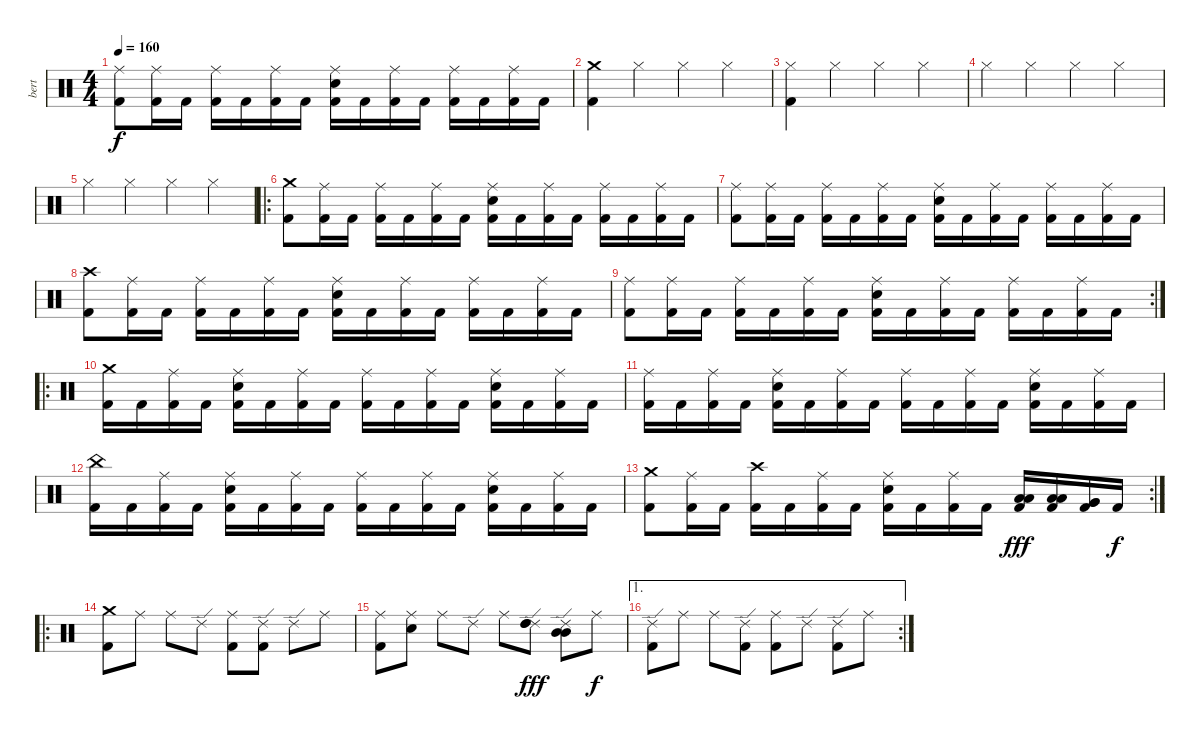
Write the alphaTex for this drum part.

\track ("bert" "bert") {instrument percussion}
\staff {score}
\articulation defaults
\ts (4 4)
\tempo 160
\clef neutral
\ks c
("Ride (middle)" "Kick (hit) 2").8{dy f} ("Ride (middle)" "Kick (hit) 2").16 "Kick (hit) 2".16 ("Ride (middle)" "Kick (hit) 2").16 "Kick (hit) 2".16 ("Ride (middle)" "Kick (hit) 2").16 "Kick (hit) 2".16 ("Ride (middle)" "Snare (hit) 2" "Kick (hit) 2").16 "Kick (hit) 2".16 ("Ride (middle)" "Kick (hit) 2").16 "Kick (hit) 2".16 ("Ride (middle)" "Kick (hit) 2").16 "Kick (hit) 2".16 ("Ride (middle)" "Kick (hit) 2").16 "Kick (hit) 2".16 |
("Crash medium (hit)" "Kick (hit) 2").4 "Hi-Hat (closed)".4 "Hi-Hat (closed)".4 "Hi-Hat (closed)".4 |
("Hi-Hat (closed)" "Kick (hit) 2").4 "Hi-Hat (closed)".4 "Hi-Hat (closed)".4 "Hi-Hat (closed)".4 |
"Hi-Hat (closed)".4 "Hi-Hat (closed)".4 "Hi-Hat (closed)".4 "Hi-Hat (closed)".4 |
"Hi-Hat (closed)".4 "Hi-Hat (closed)".4 "Hi-Hat (closed)".4 "Hi-Hat (closed)".4 |
\ro
("Crash medium (hit)" "Kick (hit) 2").8 ("Ride (middle)" "Kick (hit) 2").16 "Kick (hit) 2".16 ("Ride (middle)" "Kick (hit) 2").16 "Kick (hit) 2".16 ("Ride (middle)" "Kick (hit) 2").16 "Kick (hit) 2".16 ("Ride (middle)" "Snare (hit) 2" "Kick (hit) 2").16 "Kick (hit) 2".16 ("Ride (middle)" "Kick (hit) 2").16 "Kick (hit) 2".16 ("Ride (middle)" "Kick (hit) 2").16 "Kick (hit) 2".16 ("Ride (middle)" "Kick (hit) 2").16 "Kick (hit) 2".16 |
("Ride (middle)" "Kick (hit) 2").8 ("Ride (middle)" "Kick (hit) 2").16 "Kick (hit) 2".16 ("Ride (middle)" "Kick (hit) 2").16 "Kick (hit) 2".16 ("Ride (middle)" "Kick (hit) 2").16 "Kick (hit) 2".16 ("Ride (middle)" "Snare (hit) 2" "Kick (hit) 2").16 "Kick (hit) 2".16 ("Ride (middle)" "Kick (hit) 2").16 "Kick (hit) 2".16 ("Ride (middle)" "Kick (hit) 2").16 "Kick (hit) 2".16 ("Ride (middle)" "Kick (hit) 2").16 "Kick (hit) 2".16 |
("Crash high (hit)" "Kick (hit) 2").8 ("Ride (middle)" "Kick (hit) 2").16 "Kick (hit) 2".16 ("Ride (middle)" "Kick (hit) 2").16 "Kick (hit) 2".16 ("Ride (middle)" "Kick (hit) 2").16 "Kick (hit) 2".16 ("Ride (middle)" "Snare (hit) 2" "Kick (hit) 2").16 "Kick (hit) 2".16 ("Ride (middle)" "Kick (hit) 2").16 "Kick (hit) 2".16 ("Ride (middle)" "Kick (hit) 2").16 "Kick (hit) 2".16 ("Ride (middle)" "Kick (hit) 2").16 "Kick (hit) 2".16 |
\rc 2
("Ride (middle)" "Kick (hit) 2").8 ("Ride (middle)" "Kick (hit) 2").16 "Kick (hit) 2".16 ("Ride (middle)" "Kick (hit) 2").16 "Kick (hit) 2".16 ("Ride (middle)" "Kick (hit) 2").16 "Kick (hit) 2".16 ("Ride (middle)" "Snare (hit) 2" "Kick (hit) 2").16 "Kick (hit) 2".16 ("Ride (middle)" "Kick (hit) 2").16 "Kick (hit) 2".16 ("Ride (middle)" "Kick (hit) 2").16 "Kick (hit) 2".16 ("Ride (middle)" "Kick (hit) 2").16 "Kick (hit) 2".16 |
\ro
("Crash medium (hit)" "Kick (hit) 2").16 "Kick (hit) 2".16 ("Ride (middle)" "Kick (hit) 2").16 "Kick (hit) 2".16 ("Ride (middle)" "Snare (hit) 2" "Kick (hit) 2").16 "Kick (hit) 2".16 ("Ride (middle)" "Kick (hit) 2").16 "Kick (hit) 2".16 ("Ride (middle)" "Kick (hit) 2").16 "Kick (hit) 2".16 ("Ride (middle)" "Kick (hit) 2").16 "Kick (hit) 2".16 ("Ride (middle)" "Snare (hit) 2" "Kick (hit) 2").16 "Kick (hit) 2".16 ("Ride (middle)" "Kick (hit) 2").16 "Kick (hit) 2".16 |
("Ride (middle)" "Kick (hit) 2").16 "Kick (hit) 2".16 ("Ride (middle)" "Kick (hit) 2").16 "Kick (hit) 2".16 ("Ride (middle)" "Snare (hit) 2" "Kick (hit) 2").16 "Kick (hit) 2".16 ("Ride (middle)" "Kick (hit) 2").16 "Kick (hit) 2".16 ("Ride (middle)" "Kick (hit) 2").16 "Kick (hit) 2".16 ("Ride (middle)" "Kick (hit) 2").16 "Kick (hit) 2".16 ("Ride (middle)" "Snare (hit) 2" "Kick (hit) 2").16 "Kick (hit) 2".16 ("Ride (middle)" "Kick (hit) 2").16 "Kick (hit) 2".16 |
("China (hit)" "Kick (hit) 2").16 "Kick (hit) 2".16 ("Ride (middle)" "Kick (hit) 2").16 "Kick (hit) 2".16 ("Ride (middle)" "Snare (hit) 2" "Kick (hit) 2").16 "Kick (hit) 2".16 ("Ride (middle)" "Kick (hit) 2").16 "Kick (hit) 2".16 ("Ride (middle)" "Kick (hit) 2").16 "Kick (hit) 2".16 ("Ride (middle)" "Kick (hit) 2").16 "Kick (hit) 2".16 ("Ride (middle)" "Snare (hit) 2" "Kick (hit) 2").16 "Kick (hit) 2".16 ("Ride (middle)" "Kick (hit) 2").16 "Kick (hit) 2".16 |
\rc 2
("Crash medium (hit)" "Kick (hit) 2").8 ("Ride (middle)" "Kick (hit) 2").16 "Kick (hit) 2".16 ("Crash high (hit)" "Kick (hit) 2").16 "Kick (hit) 2".16 ("Ride (middle)" "Kick (hit) 2").16 "Kick (hit) 2".16 ("Ride (middle)" "Snare (hit) 2" "Kick (hit) 2").16 "Kick (hit) 2".16 ("Ride (middle)" "Kick (hit) 2").16 "Kick (hit) 2".16 ("Low Tom (hit)" "Low Tom (hit)" "Kick (hit) 2").16{dy fff} ("Low Tom (hit)" "Low Tom (hit)" "Kick (hit) 2").16 ("Very Low Tom (hit)" "Very Low Tom (hit)" "Kick (hit) 2").16 "Kick (hit) 2".16{dy f} |
\ro
("Crash medium (hit)" "Kick (hit) 2").8 "Ride (middle)".8 "Ride (middle)".8 "Ride (edge) 2".8 ("Ride (middle)" "Kick (hit) 2").8 ("Ride (edge) 2" "Kick (hit) 2").8 "Ride (edge) 2".8 "Ride (middle)".8 |
("Ride (middle)" "Kick (hit) 2").8 ("Ride (middle)" "Snare (hit) 2").8 "Ride (middle)".8 "Ride (edge) 2".8 "Ride (middle)".8 ("Ride (edge) 2" "High Tom (hit)" "High Tom (hit)").8{dy fff} ("Ride (edge) 2" "Mid Tom (hit)" "Mid Tom (hit)").8 "Ride (middle)".8{dy f} |
\ae 1
\rc 2
("Ride (edge) 2" "Kick (hit) 2").8 "Ride (middle)".8 "Ride (middle)".8 ("Ride (edge) 2" "Kick (hit) 2").8 ("Ride (middle)" "Kick (hit) 2").8 "Ride (edge) 2".8 ("Ride (edge) 2" "Kick (hit) 2").8 "Ride (middle)".8
